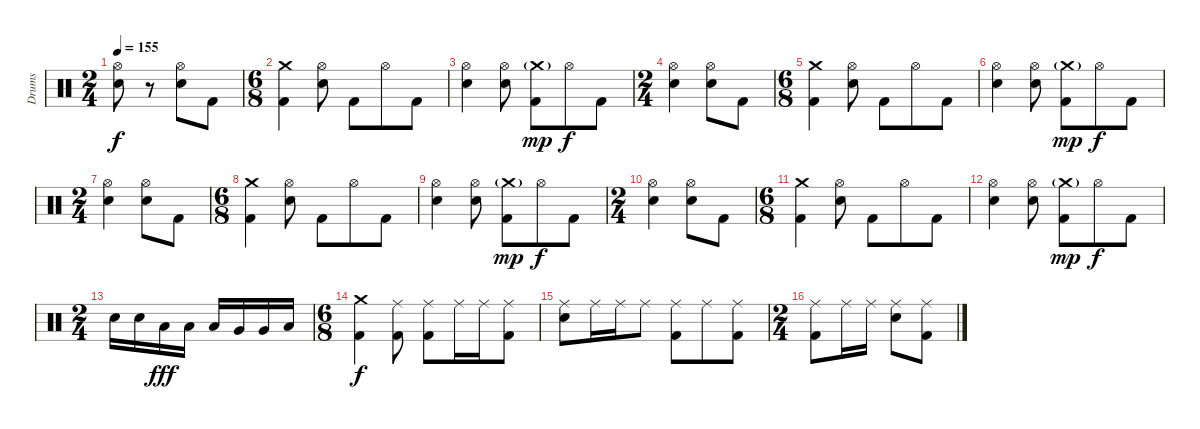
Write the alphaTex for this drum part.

\track ("Drums" "Drums") {instrument percussion}
\staff {score}
\articulation defaults
\ts (2 4)
\tempo 155
\clef neutral
\ks c
("Hi-Hat (open)" "Electric Snare (hit)").8{dy f} r.8 ("Hi-Hat (open)" "Electric Snare (hit)").8 "Kick (hit) 2".8 |
\ts (6 8)
("Crash medium (hit)" "Kick (hit) 2").4 ("Hi-Hat (open)" "Electric Snare (hit)").8 "Kick (hit) 2".8 "Hi-Hat (open)".8 "Kick (hit) 2".8 |
("Hi-Hat (open)" "Electric Snare (hit)").4 ("Hi-Hat (open)" "Electric Snare (hit)").8 ("Crash medium (hit)"{g} "Kick (hit) 2").8{dy mp} "Hi-Hat (open)".8{dy f} "Kick (hit) 2".8 |
\ts (2 4)
("Hi-Hat (open)" "Electric Snare (hit)").4 ("Hi-Hat (open)" "Electric Snare (hit)").8 "Kick (hit) 2".8 |
\ts (6 8)
("Crash medium (hit)" "Kick (hit) 2").4 ("Hi-Hat (open)" "Electric Snare (hit)").8 "Kick (hit) 2".8 "Hi-Hat (open)".8 "Kick (hit) 2".8 |
("Hi-Hat (open)" "Electric Snare (hit)").4 ("Hi-Hat (open)" "Electric Snare (hit)").8 ("Crash medium (hit)"{g} "Kick (hit) 2").8{dy mp} "Hi-Hat (open)".8{dy f} "Kick (hit) 2".8 |
\ts (2 4)
("Hi-Hat (open)" "Electric Snare (hit)").4 ("Hi-Hat (open)" "Electric Snare (hit)").8 "Kick (hit) 2".8 |
\ts (6 8)
("Crash medium (hit)" "Kick (hit) 2").4 ("Hi-Hat (open)" "Electric Snare (hit)").8 "Kick (hit) 2".8 "Hi-Hat (open)".8 "Kick (hit) 2".8 |
("Hi-Hat (open)" "Electric Snare (hit)").4 ("Hi-Hat (open)" "Electric Snare (hit)").8 ("Crash medium (hit)"{g} "Kick (hit) 2").8{dy mp} "Hi-Hat (open)".8{dy f} "Kick (hit) 2".8 |
\ts (2 4)
("Hi-Hat (open)" "Electric Snare (hit)").4 ("Hi-Hat (open)" "Electric Snare (hit)").8 "Kick (hit) 2".8 |
\ts (6 8)
("Crash medium (hit)" "Kick (hit) 2").4 ("Hi-Hat (open)" "Electric Snare (hit)").8 "Kick (hit) 2".8 "Hi-Hat (open)".8 "Kick (hit) 2".8 |
("Hi-Hat (open)" "Electric Snare (hit)").4 ("Hi-Hat (open)" "Electric Snare (hit)").8 ("Crash medium (hit)"{g} "Kick (hit) 2").8{dy mp} "Hi-Hat (open)".8{dy f} "Kick (hit) 2".8 |
\ts (2 4)
"Electric Snare (hit)".16 "Electric Snare (hit)".16 "Low Tom (hit)".16{dy fff} "Low Tom (hit)".16 "Low Tom (hit)".16 "Very Low Tom (hit)".16 "Very Low Tom (hit)".16 "Low Floor Tom (hit)".16 |
\ts (6 8)
("Crash medium (hit)" "Kick (hit) 2").4{dy f} ("Ride (middle)" "Kick (hit) 2").8 ("Ride (middle)" "Kick (hit) 2").8 "Ride (middle)".16 "Ride (middle)".16 ("Ride (middle)" "Kick (hit) 2").8 |
("Ride (middle)" "Electric Snare (hit)").8 "Ride (middle)".16 "Ride (middle)".16 "Ride (middle)".8 ("Ride (middle)" "Kick (hit) 2").8 "Ride (middle)".8 ("Ride (middle)" "Kick (hit) 2").8 |
\ts (2 4)
("Ride (middle)" "Kick (hit) 2").8 "Ride (middle)".16 "Ride (middle)".16 ("Ride (middle)" "Electric Snare (hit)").8 ("Ride (middle)" "Kick (hit) 2").8
